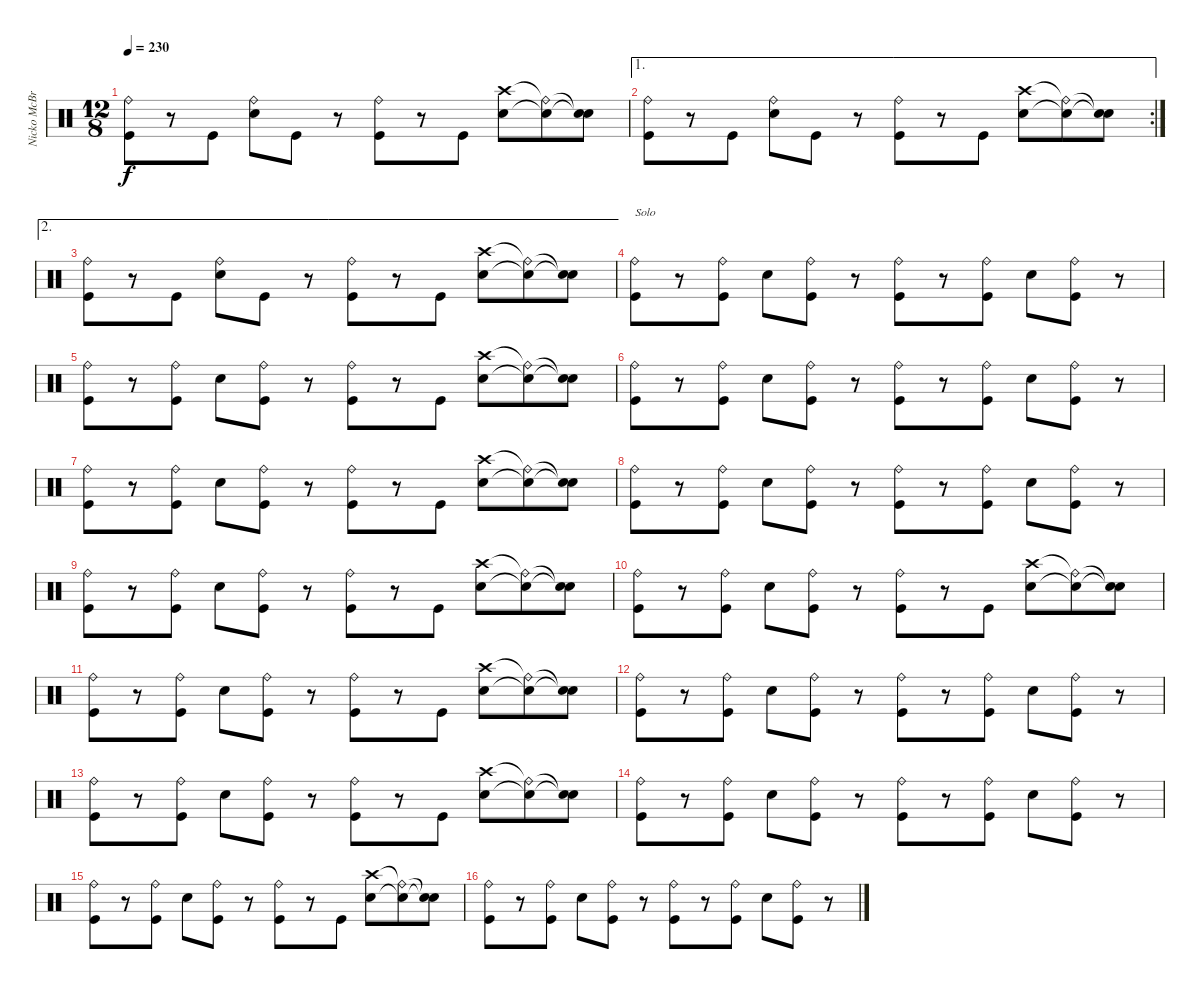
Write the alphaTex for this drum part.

\track ("Nicko McBrain" "Nicko McBr") {instrument percussion}
\staff {score}
\articulation defaults
\ts (12 8)
\tempo 230
\clef neutral
\ks c
("Ride (bell)" "Kick (hit)").8{dy f} r.8 "Kick (hit)".8 ("Ride (bell)" "Electric Snare (hit)").8 "Kick (hit)".8 r.8 ("Ride (bell)" "Kick (hit)").8 r.8 "Kick (hit)".8 ("Crash high (hit)" "Electric Snare (hit)").8 ("Ride (bell)"{t} "Snare (hit)"{t}).8 ("Snare (hit)"{t} "Snare (hit)"{t}).8 |
\ae 1
\rc 2
("Ride (bell)" "Kick (hit)").8 r.8 "Kick (hit)".8 ("Ride (bell)" "Electric Snare (hit)").8 "Kick (hit)".8 r.8 ("Ride (bell)" "Kick (hit)").8 r.8 "Kick (hit)".8 ("Crash high (hit)" "Electric Snare (hit)").8 ("Ride (bell)"{t} "Snare (hit)"{t}).8 ("Snare (hit)"{t} "Snare (hit)"{t}).8 |
\ae 2
("Ride (bell)" "Kick (hit)").8 r.8 "Kick (hit)".8 ("Ride (bell)" "Electric Snare (hit)").8 "Kick (hit)".8 r.8 ("Ride (bell)" "Kick (hit)").8 r.8 "Kick (hit)".8 ("Crash high (hit)" "Electric Snare (hit)").8 ("Ride (bell)"{t} "Snare (hit)"{t}).8 ("Snare (hit)"{t} "Snare (hit)"{t}).8 |
("Ride (bell)" "Kick (hit)").8{txt "Solo"} r.8 ("Ride (bell)" "Kick (hit)").8 "Electric Snare (hit)".8 ("Ride (bell)" "Kick (hit)").8 r.8 ("Ride (bell)" "Kick (hit)").8 r.8 ("Ride (bell)" "Kick (hit)").8 "Electric Snare (hit)".8 ("Ride (bell)" "Kick (hit)").8 r.8 |
("Ride (bell)" "Kick (hit)").8 r.8 ("Ride (bell)" "Kick (hit)").8 "Electric Snare (hit)".8 ("Ride (bell)" "Kick (hit)").8 r.8 ("Ride (bell)" "Kick (hit)").8 r.8 "Kick (hit)".8 ("Crash high (hit)" "Electric Snare (hit)").8 ("Ride (bell)"{t} "Snare (hit)"{t}).8 ("Snare (hit)"{t} "Snare (hit)"{t}).8 |
("Ride (bell)" "Kick (hit)").8 r.8 ("Ride (bell)" "Kick (hit)").8 "Electric Snare (hit)".8 ("Ride (bell)" "Kick (hit)").8 r.8 ("Ride (bell)" "Kick (hit)").8 r.8 ("Ride (bell)" "Kick (hit)").8 "Electric Snare (hit)".8 ("Ride (bell)" "Kick (hit)").8 r.8 |
("Ride (bell)" "Kick (hit)").8 r.8 ("Ride (bell)" "Kick (hit)").8 "Electric Snare (hit)".8 ("Ride (bell)" "Kick (hit)").8 r.8 ("Ride (bell)" "Kick (hit)").8 r.8 "Kick (hit)".8 ("Crash high (hit)" "Electric Snare (hit)").8 ("Ride (bell)"{t} "Snare (hit)"{t}).8 ("Snare (hit)"{t} "Snare (hit)"{t}).8 |
("Ride (bell)" "Kick (hit)").8 r.8 ("Ride (bell)" "Kick (hit)").8 "Electric Snare (hit)".8 ("Ride (bell)" "Kick (hit)").8 r.8 ("Ride (bell)" "Kick (hit)").8 r.8 ("Ride (bell)" "Kick (hit)").8 "Electric Snare (hit)".8 ("Ride (bell)" "Kick (hit)").8 r.8 |
("Ride (bell)" "Kick (hit)").8 r.8 ("Ride (bell)" "Kick (hit)").8 "Electric Snare (hit)".8 ("Ride (bell)" "Kick (hit)").8 r.8 ("Ride (bell)" "Kick (hit)").8 r.8 "Kick (hit)".8 ("Crash high (hit)" "Electric Snare (hit)").8 ("Ride (bell)"{t} "Snare (hit)"{t}).8 ("Snare (hit)"{t} "Snare (hit)"{t}).8 |
("Ride (bell)" "Kick (hit)").8 r.8 ("Ride (bell)" "Kick (hit)").8 "Electric Snare (hit)".8 ("Ride (bell)" "Kick (hit)").8 r.8 ("Ride (bell)" "Kick (hit)").8 r.8 "Kick (hit)".8 ("Crash high (hit)" "Electric Snare (hit)").8 ("Ride (bell)"{t} "Snare (hit)"{t}).8 ("Snare (hit)"{t} "Snare (hit)"{t}).8 |
("Ride (bell)" "Kick (hit)").8 r.8 ("Ride (bell)" "Kick (hit)").8 "Electric Snare (hit)".8 ("Ride (bell)" "Kick (hit)").8 r.8 ("Ride (bell)" "Kick (hit)").8 r.8 "Kick (hit)".8 ("Crash high (hit)" "Electric Snare (hit)").8 ("Ride (bell)"{t} "Snare (hit)"{t}).8 ("Snare (hit)"{t} "Snare (hit)"{t}).8 |
("Ride (bell)" "Kick (hit)").8 r.8 ("Ride (bell)" "Kick (hit)").8 "Electric Snare (hit)".8 ("Ride (bell)" "Kick (hit)").8 r.8 ("Ride (bell)" "Kick (hit)").8 r.8 ("Ride (bell)" "Kick (hit)").8 "Electric Snare (hit)".8 ("Ride (bell)" "Kick (hit)").8 r.8 |
("Ride (bell)" "Kick (hit)").8 r.8 ("Ride (bell)" "Kick (hit)").8 "Electric Snare (hit)".8 ("Ride (bell)" "Kick (hit)").8 r.8 ("Ride (bell)" "Kick (hit)").8 r.8 "Kick (hit)".8 ("Crash high (hit)" "Electric Snare (hit)").8 ("Ride (bell)"{t} "Snare (hit)"{t}).8 ("Snare (hit)"{t} "Snare (hit)"{t}).8 |
("Ride (bell)" "Kick (hit)").8 r.8 ("Ride (bell)" "Kick (hit)").8 "Electric Snare (hit)".8 ("Ride (bell)" "Kick (hit)").8 r.8 ("Ride (bell)" "Kick (hit)").8 r.8 ("Ride (bell)" "Kick (hit)").8 "Electric Snare (hit)".8 ("Ride (bell)" "Kick (hit)").8 r.8 |
("Ride (bell)" "Kick (hit)").8 r.8 ("Ride (bell)" "Kick (hit)").8 "Electric Snare (hit)".8 ("Ride (bell)" "Kick (hit)").8 r.8 ("Ride (bell)" "Kick (hit)").8 r.8 "Kick (hit)".8 ("Crash high (hit)" "Electric Snare (hit)").8 ("Ride (bell)"{t} "Snare (hit)"{t}).8 ("Snare (hit)"{t} "Snare (hit)"{t}).8 |
("Ride (bell)" "Kick (hit)").8 r.8 ("Ride (bell)" "Kick (hit)").8 "Electric Snare (hit)".8 ("Ride (bell)" "Kick (hit)").8 r.8 ("Ride (bell)" "Kick (hit)").8 r.8 ("Ride (bell)" "Kick (hit)").8 "Electric Snare (hit)".8 ("Ride (bell)" "Kick (hit)").8 r.8
